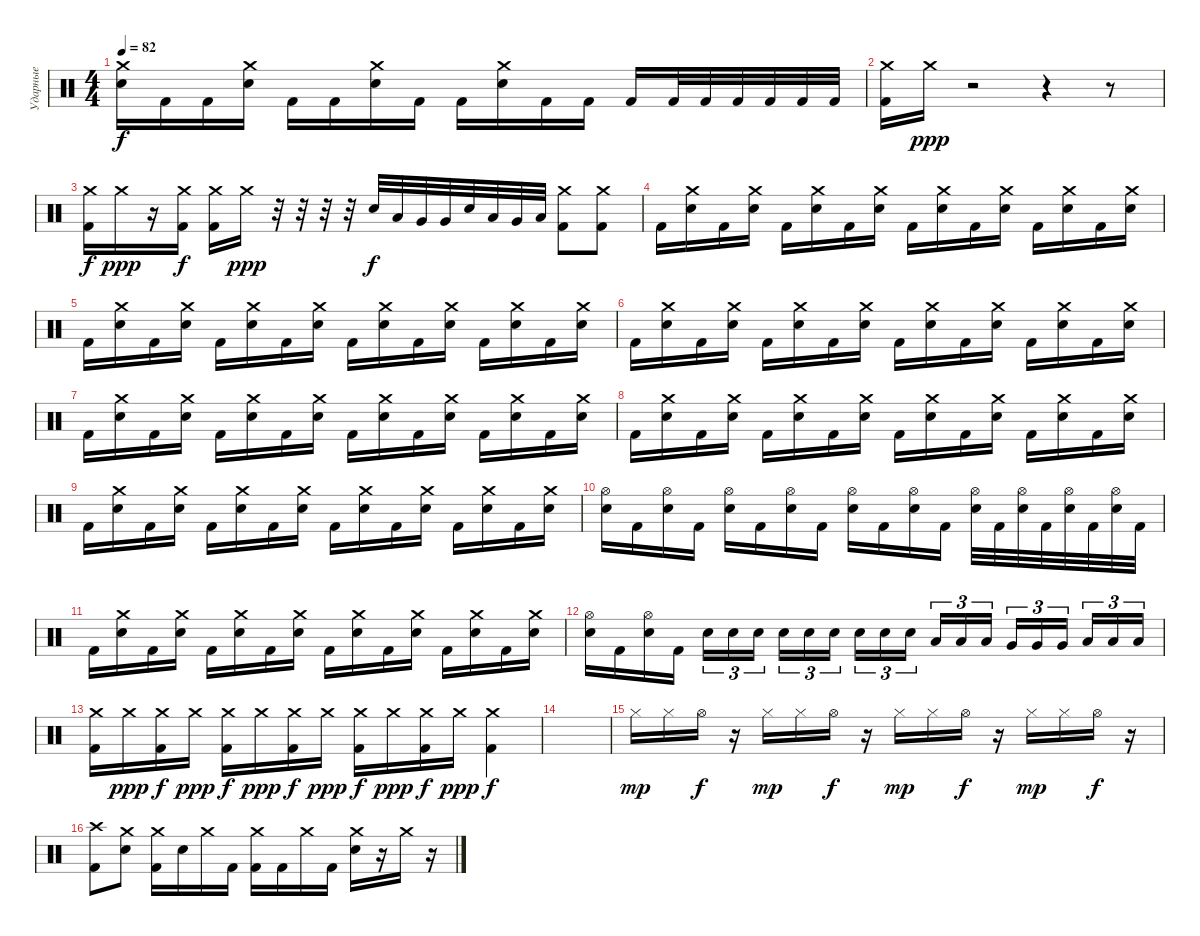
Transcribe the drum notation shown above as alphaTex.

\track ("Ударные" "Ударные") {instrument percussion}
\staff {score}
\articulation defaults
\ts (4 4)
\tempo 82
\clef neutral
\ks c
("Crash medium (hit)" "Electric Snare (hit)").16{dy f} "Kick (hit) 2".16 "Kick (hit) 2".16 ("Crash medium (hit)" "Electric Snare (hit)").16 "Kick (hit) 2".16 "Kick (hit) 2".16 ("Crash medium (hit)" "Electric Snare (hit)").16 "Kick (hit) 2".16 "Kick (hit) 2".16 ("Crash medium (hit)" "Electric Snare (hit)").16 "Kick (hit) 2".16 "Kick (hit) 2".16 "Kick (hit) 2".16 "Kick (hit) 2".32 "Kick (hit) 2".32 "Kick (hit) 2".32 "Kick (hit) 2".32 "Kick (hit) 2".32 "Kick (hit) 2".32 |
("Crash medium (hit)" "Kick (hit) 2").16 "Crash medium (hit)".16{dy ppp} r.2 r.4 r.8 |
("Crash medium (hit)" "Kick (hit) 2").16{dy f} "Crash medium (hit)".16{dy ppp} r.16 ("Crash medium (hit)" "Kick (hit) 2").16{dy f} ("Crash medium (hit)" "Kick (hit) 2").16 "Crash medium (hit)".16{dy ppp} r.32 r.32 r.32 r.32 "Electric Snare (hit)".32{dy f} "Low Tom (hit)".32 "Very Low Tom (hit)".32 "Very Low Tom (hit)".32 "Electric Snare (hit)".32 "Low Tom (hit)".32 "Very Low Tom (hit)".32 "Low Floor Tom (hit)".32 ("Crash medium (hit)" "Kick (hit) 2").8 ("Crash medium (hit)" "Kick (hit) 2").8 |
"Kick (hit) 2".16 ("Crash medium (hit)" "Electric Snare (hit)").16 "Kick (hit) 2".16 ("Crash medium (hit)" "Electric Snare (hit)").16 "Kick (hit) 2".16 ("Crash medium (hit)" "Electric Snare (hit)").16 "Kick (hit) 2".16 ("Crash medium (hit)" "Electric Snare (hit)").16 "Kick (hit) 2".16 ("Crash medium (hit)" "Electric Snare (hit)").16 "Kick (hit) 2".16 ("Crash medium (hit)" "Electric Snare (hit)").16 "Kick (hit) 2".16 ("Crash medium (hit)" "Electric Snare (hit)").16 "Kick (hit) 2".16 ("Crash medium (hit)" "Electric Snare (hit)").16 |
"Kick (hit) 2".16 ("Crash medium (hit)" "Electric Snare (hit)").16 "Kick (hit) 2".16 ("Crash medium (hit)" "Electric Snare (hit)").16 "Kick (hit) 2".16 ("Crash medium (hit)" "Electric Snare (hit)").16 "Kick (hit) 2".16 ("Crash medium (hit)" "Electric Snare (hit)").16 "Kick (hit) 2".16 ("Crash medium (hit)" "Electric Snare (hit)").16 "Kick (hit) 2".16 ("Crash medium (hit)" "Electric Snare (hit)").16 "Kick (hit) 2".16 ("Crash medium (hit)" "Electric Snare (hit)").16 "Kick (hit) 2".16 ("Crash medium (hit)" "Electric Snare (hit)").16 |
"Kick (hit) 2".16 ("Crash medium (hit)" "Electric Snare (hit)").16 "Kick (hit) 2".16 ("Crash medium (hit)" "Electric Snare (hit)").16 "Kick (hit) 2".16 ("Crash medium (hit)" "Electric Snare (hit)").16 "Kick (hit) 2".16 ("Crash medium (hit)" "Electric Snare (hit)").16 "Kick (hit) 2".16 ("Crash medium (hit)" "Electric Snare (hit)").16 "Kick (hit) 2".16 ("Crash medium (hit)" "Electric Snare (hit)").16 "Kick (hit) 2".16 ("Crash medium (hit)" "Electric Snare (hit)").16 "Kick (hit) 2".16 ("Crash medium (hit)" "Electric Snare (hit)").16 |
"Kick (hit) 2".16 ("Crash medium (hit)" "Electric Snare (hit)").16 "Kick (hit) 2".16 ("Crash medium (hit)" "Electric Snare (hit)").16 "Kick (hit) 2".16 ("Crash medium (hit)" "Electric Snare (hit)").16 "Kick (hit) 2".16 ("Crash medium (hit)" "Electric Snare (hit)").16 "Kick (hit) 2".16 ("Crash medium (hit)" "Electric Snare (hit)").16 "Kick (hit) 2".16 ("Crash medium (hit)" "Electric Snare (hit)").16 "Kick (hit) 2".16 ("Crash medium (hit)" "Electric Snare (hit)").16 "Kick (hit) 2".16 ("Crash medium (hit)" "Electric Snare (hit)").16 |
"Kick (hit) 2".16 ("Crash medium (hit)" "Electric Snare (hit)").16 "Kick (hit) 2".16 ("Crash medium (hit)" "Electric Snare (hit)").16 "Kick (hit) 2".16 ("Crash medium (hit)" "Electric Snare (hit)").16 "Kick (hit) 2".16 ("Crash medium (hit)" "Electric Snare (hit)").16 "Kick (hit) 2".16 ("Crash medium (hit)" "Electric Snare (hit)").16 "Kick (hit) 2".16 ("Crash medium (hit)" "Electric Snare (hit)").16 "Kick (hit) 2".16 ("Crash medium (hit)" "Electric Snare (hit)").16 "Kick (hit) 2".16 ("Crash medium (hit)" "Electric Snare (hit)").16 |
"Kick (hit) 2".16 ("Crash medium (hit)" "Electric Snare (hit)").16 "Kick (hit) 2".16 ("Crash medium (hit)" "Electric Snare (hit)").16 "Kick (hit) 2".16 ("Crash medium (hit)" "Electric Snare (hit)").16 "Kick (hit) 2".16 ("Crash medium (hit)" "Electric Snare (hit)").16 "Kick (hit) 2".16 ("Crash medium (hit)" "Electric Snare (hit)").16 "Kick (hit) 2".16 ("Crash medium (hit)" "Electric Snare (hit)").16 "Kick (hit) 2".16 ("Crash medium (hit)" "Electric Snare (hit)").16 "Kick (hit) 2".16 ("Crash medium (hit)" "Electric Snare (hit)").16 |
("Hi-Hat (open)" "Electric Snare (hit)").16 "Kick (hit) 2".16 ("Hi-Hat (open)" "Electric Snare (hit)").16 "Kick (hit) 2".16 ("Hi-Hat (open)" "Electric Snare (hit)").16 "Kick (hit) 2".16 ("Hi-Hat (open)" "Electric Snare (hit)").16 "Kick (hit) 2".16 ("Hi-Hat (open)" "Electric Snare (hit)").16 "Kick (hit) 2".16 ("Hi-Hat (open)" "Electric Snare (hit)").16 "Kick (hit) 2".16 ("Hi-Hat (open)" "Electric Snare (hit)").32 "Kick (hit) 2".32 ("Hi-Hat (open)" "Electric Snare (hit)").32 "Kick (hit) 2".32 ("Hi-Hat (open)" "Electric Snare (hit)").32 "Kick (hit) 2".32 ("Hi-Hat (open)" "Electric Snare (hit)").32 "Kick (hit) 2".32 |
"Kick (hit) 2".16 ("Crash medium (hit)" "Electric Snare (hit)").16 "Kick (hit) 2".16 ("Crash medium (hit)" "Electric Snare (hit)").16 "Kick (hit) 2".16 ("Crash medium (hit)" "Electric Snare (hit)").16 "Kick (hit) 2".16 ("Crash medium (hit)" "Electric Snare (hit)").16 "Kick (hit) 2".16 ("Crash medium (hit)" "Electric Snare (hit)").16 "Kick (hit) 2".16 ("Crash medium (hit)" "Electric Snare (hit)").16 "Kick (hit) 2".16 ("Crash medium (hit)" "Electric Snare (hit)").16 "Kick (hit) 2".16 ("Crash medium (hit)" "Electric Snare (hit)").16 |
("Hi-Hat (open)" "Electric Snare (hit)").16 "Kick (hit) 2".16 ("Hi-Hat (open)" "Electric Snare (hit)").16 "Kick (hit) 2".16 "Electric Snare (hit)".16{tu (3 2)} "Electric Snare (hit)".16{tu (3 2)} "Electric Snare (hit)".16{tu (3 2) beam splitsecondary} "Electric Snare (hit)".16{tu (3 2)} "Electric Snare (hit)".16{tu (3 2)} "Electric Snare (hit)".16{tu (3 2)} "Electric Snare (hit)".16{tu (3 2)} "Electric Snare (hit)".16{tu (3 2)} "Electric Snare (hit)".16{tu (3 2) beam splitsecondary} "Low Tom (hit)".16{tu (3 2)} "Low Tom (hit)".16{tu (3 2)} "Low Tom (hit)".16{tu (3 2)} "Very Low Tom (hit)".16{tu (3 2)} "Very Low Tom (hit)".16{tu (3 2)} "Very Low Tom (hit)".16{tu (3 2) beam splitsecondary} "Low Floor Tom (hit)".16{tu (3 2)} "Low Floor Tom (hit)".16{tu (3 2)} "Low Floor Tom (hit)".16{tu (3 2)} |
("Crash medium (hit)" "Kick (hit) 2").16 "Crash medium (hit)".16{dy ppp} ("Crash medium (hit)" "Kick (hit) 2").16{dy f} "Crash medium (hit)".16{dy ppp} ("Crash medium (hit)" "Kick (hit) 2").16{dy f} "Crash medium (hit)".16{dy ppp} ("Crash medium (hit)" "Kick (hit) 2").16{dy f} "Crash medium (hit)".16{dy ppp} ("Crash medium (hit)" "Kick (hit) 2").16{dy f} "Crash medium (hit)".16{dy ppp} ("Crash medium (hit)" "Kick (hit) 2").16{dy f} "Crash medium (hit)".16{dy ppp} ("Crash medium (hit)" "Kick (hit) 2").4{dy f} |
|
"Hi-Hat (closed)".16{dy mp} "Hi-Hat (closed)".16 "Hi-Hat (open)".16{dy f} r.16 "Hi-Hat (closed)".16{dy mp} "Hi-Hat (closed)".16 "Hi-Hat (open)".16{dy f} r.16 "Hi-Hat (closed)".16{dy mp} "Hi-Hat (closed)".16 "Hi-Hat (open)".16{dy f} r.16 "Hi-Hat (closed)".16{dy mp} "Hi-Hat (closed)".16 "Hi-Hat (open)".16{dy f} r.16 |
("Crash high (hit)" "Kick (hit) 2").8 ("Crash medium (hit)" "Electric Snare (hit)").8 ("Crash medium (hit)" "Kick (hit) 2").16 "Electric Snare (hit)".16 "Crash medium (hit)".16 "Kick (hit) 2".16 ("Crash medium (hit)" "Kick (hit) 2").16 "Kick (hit) 2".16 "Crash medium (hit)".16 "Kick (hit) 2".16 ("Crash medium (hit)" "Electric Snare (hit)").16 r.16 "Crash medium (hit)".16 r.16
